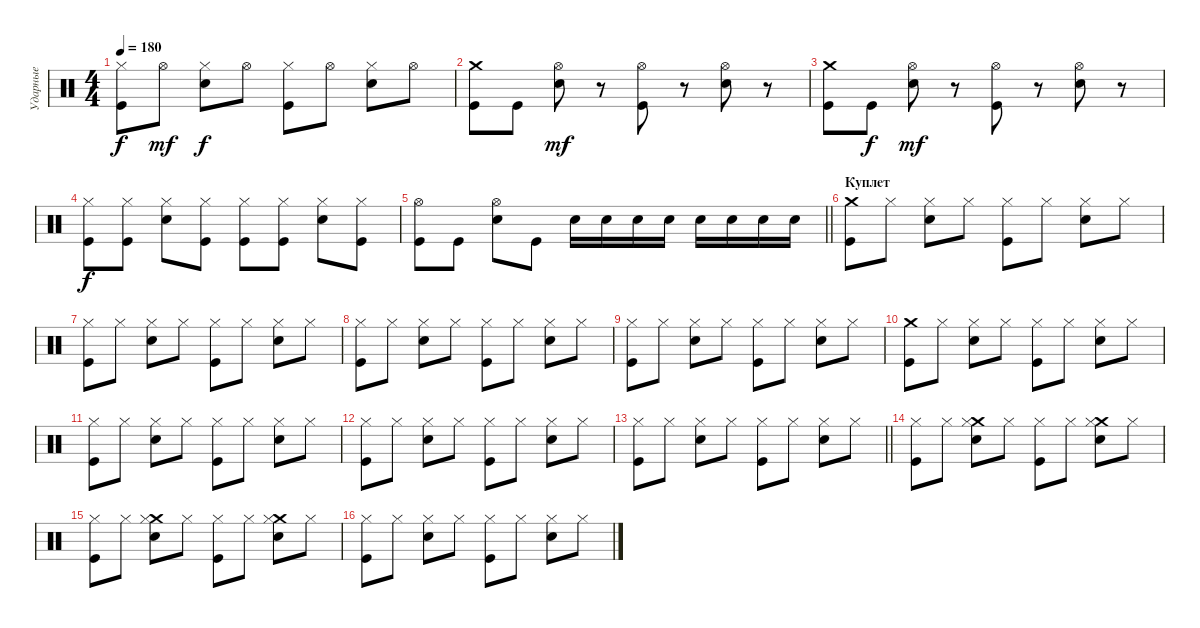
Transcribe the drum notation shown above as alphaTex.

\track ("Ударные" "Ударные") {instrument percussion}
\staff {score}
\articulation defaults
\ts (4 4)
\tempo 180
\clef neutral
\ks c
("Hi-Hat (closed)" "Kick (hit)").8{dy f} "Hi-Hat (open)".8{dy mf} ("Hi-Hat (closed)" "Electric Snare (hit)").8{dy f} "Hi-Hat (open)".8 ("Hi-Hat (closed)" "Kick (hit)").8 "Hi-Hat (open)".8 ("Hi-Hat (closed)" "Electric Snare (hit)").8 "Hi-Hat (open)".8 |
("Crash medium (hit)" "Kick (hit)").8 "Kick (hit)".8 ("Hi-Hat (open)" "Electric Snare (hit)").8{dy mf} r.8 ("Hi-Hat (open)" "Kick (hit)").8 r.8 ("Hi-Hat (open)" "Electric Snare (hit)").8 r.8 |
("Crash medium (hit)" "Kick (hit)").8 "Kick (hit)".8{dy f} ("Hi-Hat (open)" "Electric Snare (hit)").8{dy mf} r.8 ("Hi-Hat (open)" "Kick (hit)").8 r.8 ("Hi-Hat (open)" "Electric Snare (hit)").8 r.8 |
("Hi-Hat (closed)" "Kick (hit)").8{dy f} ("Hi-Hat (closed)" "Kick (hit)").8 ("Hi-Hat (closed)" "Electric Snare (hit)").8 ("Hi-Hat (closed)" "Kick (hit)").8 ("Hi-Hat (closed)" "Kick (hit)").8 ("Hi-Hat (closed)" "Kick (hit)").8 ("Hi-Hat (closed)" "Electric Snare (hit)").8 ("Hi-Hat (closed)" "Kick (hit)").8 |
\barLineRight lightlight
("Hi-Hat (open)" "Kick (hit)").8 "Kick (hit)".8 ("Hi-Hat (open)" "Electric Snare (hit)").8 "Kick (hit)".8 "Electric Snare (hit)".16 "Electric Snare (hit)".16 "Electric Snare (hit)".16 "Electric Snare (hit)".16 "Electric Snare (hit)".16 "Electric Snare (hit)".16 "Electric Snare (hit)".16 "Electric Snare (hit)".16 |
\section ("" "Куплет")
("Crash medium (hit)" "Kick (hit)").8 "Hi-Hat (closed)".8 ("Hi-Hat (closed)" "Electric Snare (hit)").8 "Hi-Hat (closed)".8 ("Hi-Hat (closed)" "Kick (hit)").8 "Hi-Hat (closed)".8 ("Hi-Hat (closed)" "Electric Snare (hit)").8 "Hi-Hat (closed)".8 |
("Hi-Hat (closed)" "Kick (hit)").8 "Hi-Hat (closed)".8 ("Hi-Hat (closed)" "Electric Snare (hit)").8 "Hi-Hat (closed)".8 ("Hi-Hat (closed)" "Kick (hit)").8 "Hi-Hat (closed)".8 ("Hi-Hat (closed)" "Electric Snare (hit)").8 "Hi-Hat (closed)".8 |
("Hi-Hat (closed)" "Kick (hit)").8 "Hi-Hat (closed)".8 ("Hi-Hat (closed)" "Electric Snare (hit)").8 "Hi-Hat (closed)".8 ("Hi-Hat (closed)" "Kick (hit)").8 "Hi-Hat (closed)".8 ("Hi-Hat (closed)" "Electric Snare (hit)").8 "Hi-Hat (closed)".8 |
("Hi-Hat (closed)" "Kick (hit)").8 "Hi-Hat (closed)".8 ("Hi-Hat (closed)" "Electric Snare (hit)").8 "Hi-Hat (closed)".8 ("Hi-Hat (closed)" "Kick (hit)").8 "Hi-Hat (closed)".8 ("Hi-Hat (closed)" "Electric Snare (hit)").8 "Hi-Hat (closed)".8 |
("Crash medium (hit)" "Kick (hit)").8 "Hi-Hat (closed)".8 ("Hi-Hat (closed)" "Electric Snare (hit)").8 "Hi-Hat (closed)".8 ("Hi-Hat (closed)" "Kick (hit)").8 "Hi-Hat (closed)".8 ("Hi-Hat (closed)" "Electric Snare (hit)").8 "Hi-Hat (closed)".8 |
("Hi-Hat (closed)" "Kick (hit)").8 "Hi-Hat (closed)".8 ("Hi-Hat (closed)" "Electric Snare (hit)").8 "Hi-Hat (closed)".8 ("Hi-Hat (closed)" "Kick (hit)").8 "Hi-Hat (closed)".8 ("Hi-Hat (closed)" "Electric Snare (hit)").8 "Hi-Hat (closed)".8 |
("Hi-Hat (closed)" "Kick (hit)").8 "Hi-Hat (closed)".8 ("Hi-Hat (closed)" "Electric Snare (hit)").8 "Hi-Hat (closed)".8 ("Hi-Hat (closed)" "Kick (hit)").8 "Hi-Hat (closed)".8 ("Hi-Hat (closed)" "Electric Snare (hit)").8 "Hi-Hat (closed)".8 |
\barLineRight lightlight
("Hi-Hat (closed)" "Kick (hit)").8 "Hi-Hat (closed)".8 ("Hi-Hat (closed)" "Electric Snare (hit)").8 "Hi-Hat (closed)".8 ("Hi-Hat (closed)" "Kick (hit)").8 "Hi-Hat (closed)".8 ("Hi-Hat (closed)" "Electric Snare (hit)").8 "Hi-Hat (closed)".8 |
\section ("" " ")
("Hi-Hat (closed)" "Kick (hit)").8 "Hi-Hat (closed)".8 ("Crash medium (hit)" "Hi-Hat (closed)" "Electric Snare (hit)").8 "Hi-Hat (closed)".8 ("Hi-Hat (closed)" "Kick (hit)").8 "Hi-Hat (closed)".8 ("Crash medium (hit)" "Hi-Hat (closed)" "Electric Snare (hit)").8 "Hi-Hat (closed)".8 |
("Hi-Hat (closed)" "Kick (hit)").8 "Hi-Hat (closed)".8 ("Crash medium (hit)" "Hi-Hat (closed)" "Electric Snare (hit)").8 "Hi-Hat (closed)".8 ("Hi-Hat (closed)" "Kick (hit)").8 "Hi-Hat (closed)".8 ("Crash medium (hit)" "Hi-Hat (closed)" "Electric Snare (hit)").8 "Hi-Hat (closed)".8 |
("Hi-Hat (closed)" "Kick (hit)").8 "Hi-Hat (closed)".8 ("Hi-Hat (closed)" "Electric Snare (hit)").8 "Hi-Hat (closed)".8 ("Hi-Hat (closed)" "Kick (hit)").8 "Hi-Hat (closed)".8 ("Hi-Hat (closed)" "Electric Snare (hit)").8 "Hi-Hat (closed)".8
